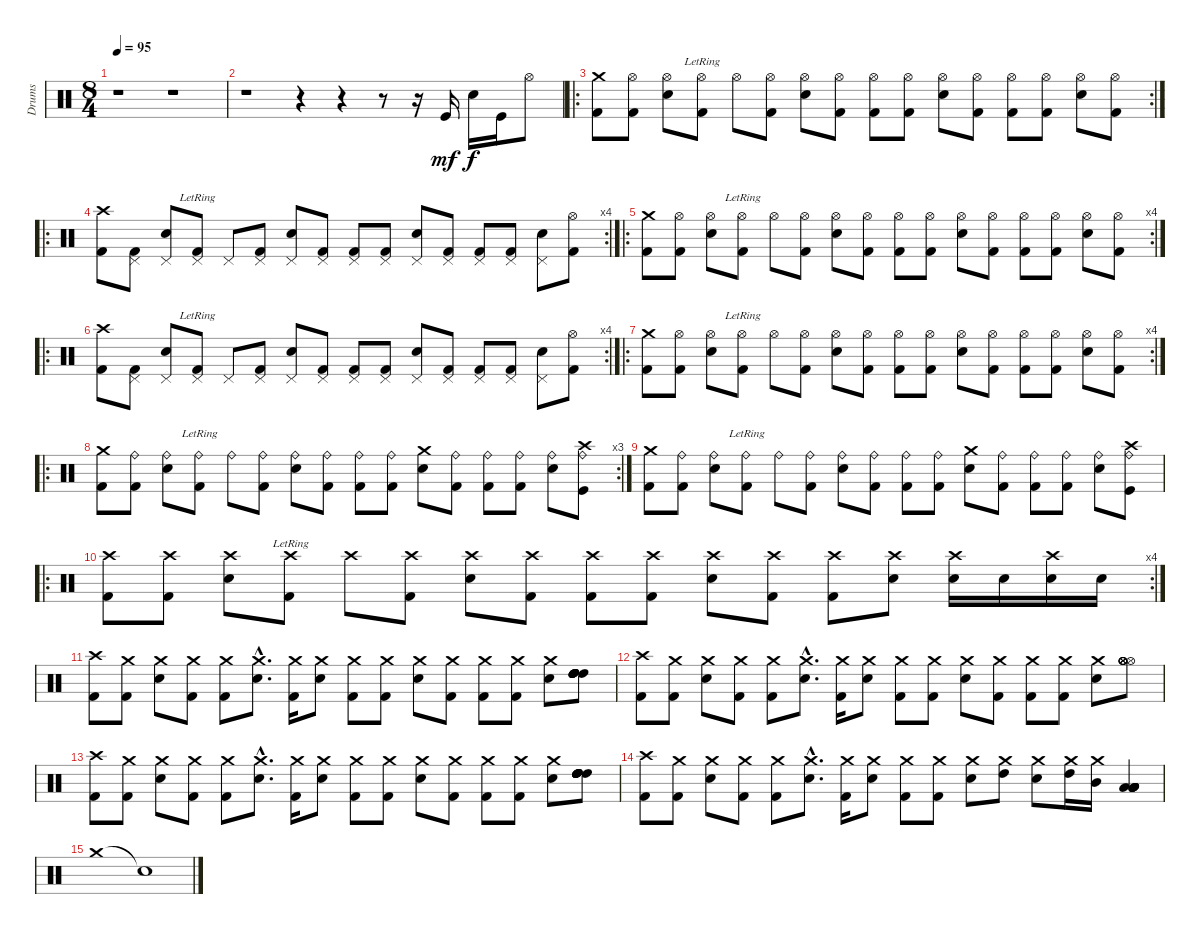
\track ("Drums" "Drums") {instrument percussion}
\staff {score}
\articulation defaults
\ts (8 4)
\tempo 95
\clef neutral
\ks c
r.1{dy mf} r.1 |
r.1 r.4 r.4 r.8 r.16 "Kick (hit)".16 "Electric Snare (hit)".16{dy f} "Kick (hit)".16 "Hi-Hat (open)".8 |
\ro
\rc 2
("Kick (hit) 2" "Crash medium (hit)").8 ("Kick (hit) 2" "Hi-Hat (open)").8 ("Electric Snare (hit)" "Hi-Hat (open)").8 ("Kick (hit) 2" "Hi-Hat (open)"{lr}).8 "Hi-Hat (open)".8 ("Kick (hit) 2" "Hi-Hat (open)").8 ("Electric Snare (hit)" "Hi-Hat (open)").8 ("Kick (hit) 2" "Hi-Hat (open)").8 ("Kick (hit) 2" "Hi-Hat (open)").8 ("Kick (hit) 2" "Hi-Hat (open)").8 ("Electric Snare (hit)" "Hi-Hat (open)").8 ("Kick (hit) 2" "Hi-Hat (open)").8 ("Kick (hit) 2" "Hi-Hat (open)").8 ("Kick (hit) 2" "Hi-Hat (open)").8 ("Electric Snare (hit)" "Hi-Hat (open)").8 ("Kick (hit) 2" "Hi-Hat (open)").8 |
\ro
\rc 4
("Kick (hit) 2" "Crash high (hit)").8 ("Kick (hit) 2" "Pedal Hi-Hat (hit)").8 ("Electric Snare (hit)" "Pedal Hi-Hat (hit)").8 ("Kick (hit) 2" "Pedal Hi-Hat (hit)"{lr}).8 "Pedal Hi-Hat (hit)".8 ("Kick (hit) 2" "Pedal Hi-Hat (hit)").8 ("Electric Snare (hit)" "Pedal Hi-Hat (hit)").8 ("Kick (hit) 2" "Pedal Hi-Hat (hit)").8 ("Kick (hit) 2" "Pedal Hi-Hat (hit)").8 ("Kick (hit) 2" "Pedal Hi-Hat (hit)").8 ("Electric Snare (hit)" "Pedal Hi-Hat (hit)").8 ("Kick (hit) 2" "Pedal Hi-Hat (hit)").8 ("Kick (hit) 2" "Pedal Hi-Hat (hit)").8 ("Kick (hit) 2" "Pedal Hi-Hat (hit)").8 ("Electric Snare (hit)" "Pedal Hi-Hat (hit)").8 ("Kick (hit) 2" "Hi-Hat (open)").8 |
\ro
\rc 4
("Kick (hit) 2" "Crash medium (hit)").8 ("Kick (hit) 2" "Hi-Hat (open)").8 ("Electric Snare (hit)" "Hi-Hat (open)").8 ("Kick (hit) 2" "Hi-Hat (open)"{lr}).8 "Hi-Hat (open)".8 ("Kick (hit) 2" "Hi-Hat (open)").8 ("Electric Snare (hit)" "Hi-Hat (open)").8 ("Kick (hit) 2" "Hi-Hat (open)").8 ("Kick (hit) 2" "Hi-Hat (open)").8 ("Kick (hit) 2" "Hi-Hat (open)").8 ("Electric Snare (hit)" "Hi-Hat (open)").8 ("Kick (hit) 2" "Hi-Hat (open)").8 ("Kick (hit) 2" "Hi-Hat (open)").8 ("Kick (hit) 2" "Hi-Hat (open)").8 ("Electric Snare (hit)" "Hi-Hat (open)").8 ("Kick (hit) 2" "Hi-Hat (open)").8 |
\ro
\rc 4
("Kick (hit) 2" "Crash high (hit)").8 ("Kick (hit) 2" "Pedal Hi-Hat (hit)").8 ("Electric Snare (hit)" "Pedal Hi-Hat (hit)").8 ("Kick (hit) 2" "Pedal Hi-Hat (hit)"{lr}).8 "Pedal Hi-Hat (hit)".8 ("Kick (hit) 2" "Pedal Hi-Hat (hit)").8 ("Electric Snare (hit)" "Pedal Hi-Hat (hit)").8 ("Kick (hit) 2" "Pedal Hi-Hat (hit)").8 ("Kick (hit) 2" "Pedal Hi-Hat (hit)").8 ("Kick (hit) 2" "Pedal Hi-Hat (hit)").8 ("Electric Snare (hit)" "Pedal Hi-Hat (hit)").8 ("Kick (hit) 2" "Pedal Hi-Hat (hit)").8 ("Kick (hit) 2" "Pedal Hi-Hat (hit)").8 ("Kick (hit) 2" "Pedal Hi-Hat (hit)").8 ("Electric Snare (hit)" "Pedal Hi-Hat (hit)").8 ("Kick (hit) 2" "Hi-Hat (open)").8 |
\ro
\rc 4
("Kick (hit) 2" "Crash medium (hit)").8 ("Kick (hit) 2" "Hi-Hat (open)").8 ("Electric Snare (hit)" "Hi-Hat (open)").8 ("Kick (hit) 2" "Hi-Hat (open)"{lr}).8 "Hi-Hat (open)".8 ("Kick (hit) 2" "Hi-Hat (open)").8 ("Electric Snare (hit)" "Hi-Hat (open)").8 ("Kick (hit) 2" "Hi-Hat (open)").8 ("Kick (hit) 2" "Hi-Hat (open)").8 ("Kick (hit) 2" "Hi-Hat (open)").8 ("Electric Snare (hit)" "Hi-Hat (open)").8 ("Kick (hit) 2" "Hi-Hat (open)").8 ("Kick (hit) 2" "Hi-Hat (open)").8 ("Kick (hit) 2" "Hi-Hat (open)").8 ("Electric Snare (hit)" "Hi-Hat (open)").8 ("Kick (hit) 2" "Hi-Hat (open)").8 |
\ro
\rc 3
("Kick (hit) 2" "Crash medium (hit)").8 ("Kick (hit) 2" "Ride (bell)").8 ("Electric Snare (hit)" "Ride (bell)").8 ("Kick (hit) 2" "Ride (bell)"{lr}).8 "Ride (bell)".8 ("Kick (hit) 2" "Ride (bell)").8 ("Electric Snare (hit)" "Ride (bell)").8 ("Kick (hit) 2" "Ride (bell)").8 ("Kick (hit) 2" "Ride (bell)").8 ("Kick (hit) 2" "Ride (bell)").8 ("Electric Snare (hit)" "Crash medium (hit)").8 ("Kick (hit) 2" "Ride (bell)").8 ("Kick (hit) 2" "Ride (bell)").8 ("Kick (hit) 2" "Ride (bell)").8 ("Electric Snare (hit)" "Ride (bell)").8 ("Kick (hit)" "Ride (bell)" "Crash high (hit)").8 |
("Kick (hit) 2" "Crash medium (hit)").8 ("Kick (hit) 2" "Ride (bell)").8 ("Electric Snare (hit)" "Ride (bell)").8 ("Kick (hit) 2" "Ride (bell)"{lr}).8 "Ride (bell)".8 ("Kick (hit) 2" "Ride (bell)").8 ("Electric Snare (hit)" "Ride (bell)").8 ("Kick (hit) 2" "Ride (bell)").8 ("Kick (hit) 2" "Ride (bell)").8 ("Kick (hit) 2" "Ride (bell)").8 ("Electric Snare (hit)" "Crash medium (hit)").8 ("Kick (hit) 2" "Ride (bell)").8 ("Kick (hit) 2" "Ride (bell)").8 ("Kick (hit) 2" "Ride (bell)").8 ("Electric Snare (hit)" "Ride (bell)").8 ("Kick (hit)" "Ride (bell)" "Crash high (hit)").8 |
\ro
\rc 4
("Kick (hit) 2" "Crash high (hit)").8 ("Kick (hit) 2" "Crash high (hit)").8 ("Electric Snare (hit)" "Crash high (hit)").8 ("Kick (hit) 2" "Crash high (hit)"{lr}).8 "Crash high (hit)".8 ("Kick (hit) 2" "Crash high (hit)").8 ("Electric Snare (hit)" "Crash high (hit)").8 ("Kick (hit) 2" "Crash high (hit)").8 ("Kick (hit) 2" "Crash high (hit)").8 ("Kick (hit) 2" "Crash high (hit)").8 ("Electric Snare (hit)" "Crash high (hit)").8 ("Kick (hit) 2" "Crash high (hit)").8 ("Kick (hit) 2" "Crash high (hit)").8 ("Electric Snare (hit)" "Crash high (hit)").8 ("Electric Snare (hit)" "Crash high (hit)").16 "Electric Snare (hit)".16 ("Electric Snare (hit)" "Crash high (hit)").16 "Electric Snare (hit)".16 |
("Kick (hit) 2" "Crash high (hit)").8 ("Kick (hit) 2" "Crash medium (hit)").8 ("Electric Snare (hit)" "Crash medium (hit)").8 ("Kick (hit) 2" "Crash medium (hit)").8 ("Kick (hit) 2" "Crash medium (hit)").8 ("Electric Snare (hit)"{hac} "Crash medium (hit)"{hac}).8{d} ("Kick (hit) 2" "Crash medium (hit)").16 ("Electric Snare (hit)" "Crash medium (hit)").8 ("Kick (hit) 2" "Crash medium (hit)").8 ("Kick (hit) 2" "Crash medium (hit)").8 ("Electric Snare (hit)" "Crash medium (hit)").8 ("Kick (hit) 2" "Crash medium (hit)").8 ("Kick (hit) 2" "Crash medium (hit)").8 ("Kick (hit) 2" "Crash medium (hit)").8 ("Electric Snare (hit)" "Crash medium (hit)").8 ("High Tom (hit)" "High Tom (hit)" "High Tom (hit)" "High Tom (hit)" "High Tom (hit)" "High Tom (hit)").8 |
("Kick (hit) 2" "Crash high (hit)").8 ("Kick (hit) 2" "Crash medium (hit)").8 ("Electric Snare (hit)" "Crash medium (hit)").8 ("Kick (hit) 2" "Crash medium (hit)").8 ("Kick (hit) 2" "Crash medium (hit)").8 ("Electric Snare (hit)"{hac} "Crash medium (hit)"{hac}).8{d} ("Kick (hit) 2" "Crash medium (hit)").16 ("Electric Snare (hit)" "Crash medium (hit)").8 ("Kick (hit) 2" "Crash medium (hit)").8 ("Kick (hit) 2" "Crash medium (hit)").8 ("Electric Snare (hit)" "Crash medium (hit)").8 ("Kick (hit) 2" "Crash medium (hit)").8 ("Kick (hit) 2" "Crash medium (hit)").8 ("Kick (hit) 2" "Crash medium (hit)").8 ("Electric Snare (hit)" "Crash medium (hit)").8 ("Hi-Hat (open)" "Hi-Hat (open)" "Hi-Hat (open)" "Hi-Hat (open)" "Hi-Hat (open)" "Hi-Hat (open)").8 |
("Kick (hit) 2" "Crash high (hit)").8 ("Kick (hit) 2" "Crash medium (hit)").8 ("Electric Snare (hit)" "Crash medium (hit)").8 ("Kick (hit) 2" "Crash medium (hit)").8 ("Kick (hit) 2" "Crash medium (hit)").8 ("Electric Snare (hit)"{hac} "Crash medium (hit)"{hac}).8{d} ("Kick (hit) 2" "Crash medium (hit)").16 ("Electric Snare (hit)" "Crash medium (hit)").8 ("Kick (hit) 2" "Crash medium (hit)").8 ("Kick (hit) 2" "Crash medium (hit)").8 ("Electric Snare (hit)" "Crash medium (hit)").8 ("Kick (hit) 2" "Crash medium (hit)").8 ("Kick (hit) 2" "Crash medium (hit)").8 ("Kick (hit) 2" "Crash medium (hit)").8 ("Electric Snare (hit)" "Crash medium (hit)").8 ("High Tom (hit)" "High Tom (hit)" "High Tom (hit)" "High Tom (hit)" "High Tom (hit)" "High Tom (hit)").8 |
("Kick (hit) 2" "Crash high (hit)").8 ("Kick (hit) 2" "Crash medium (hit)").8 ("Electric Snare (hit)" "Crash medium (hit)").8 ("Kick (hit) 2" "Crash medium (hit)").8 ("Kick (hit) 2" "Crash medium (hit)").8 ("Electric Snare (hit)"{hac} "Crash medium (hit)"{hac}).8{d} ("Kick (hit) 2" "Crash medium (hit)").16 ("Electric Snare (hit)" "Crash medium (hit)").8 ("Kick (hit) 2" "Crash medium (hit)").8 ("Kick (hit) 2" "Crash medium (hit)").8 ("Electric Snare (hit)" "Crash medium (hit)").8 ("High Tom (hit)" "Crash medium (hit)").8 ("Electric Snare (hit)" "Crash medium (hit)").8 ("High Tom (hit)" "Crash medium (hit)").16 ("Mid Tom (hit)" "Crash medium (hit)").16 ("Low Tom (hit)" "Low Tom (hit)" "Low Tom (hit)" "Low Tom (hit)" "Low Tom (hit)" "Low Tom (hit)").4 |
"Crash medium (hit)".1 "Snare (hit)"{t}.1
